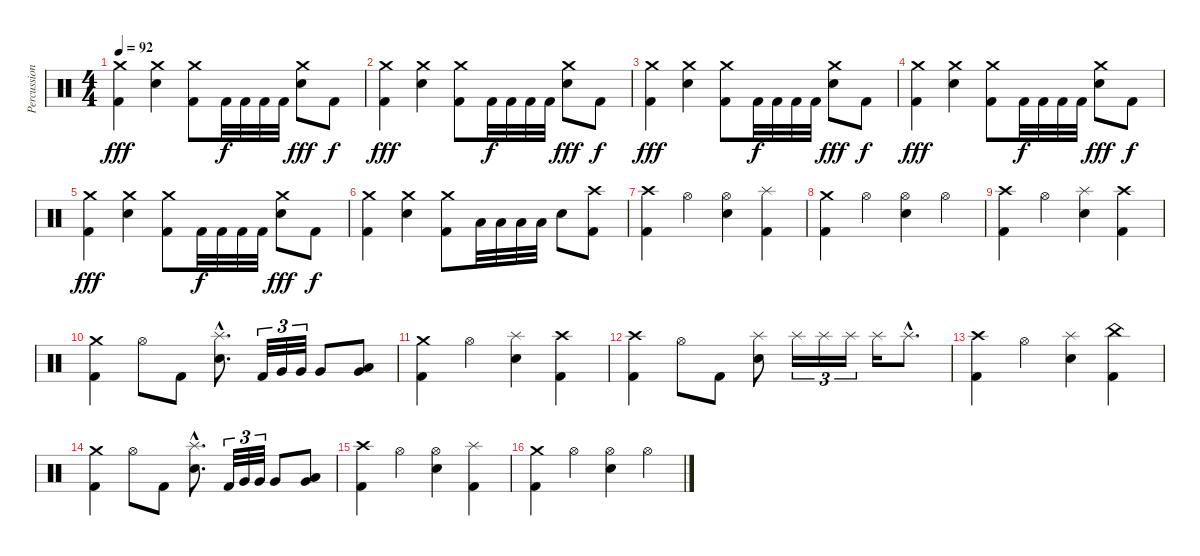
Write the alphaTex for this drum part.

\track ("Percussion" "Percussion") {instrument percussion}
\staff {score}
\articulation defaults
\ts (4 4)
\tempo 92
\clef neutral
\ks c
("Crash medium (hit)" "Kick (hit) 2").4{dy fff} ("Crash medium (hit)" "Electric Snare (hit)").4 ("Crash medium (hit)" "Kick (hit) 2").8 "Kick (hit) 2".32{dy f} "Kick (hit) 2".32 "Kick (hit) 2".32 "Kick (hit) 2".32 ("Crash medium (hit)" "Electric Snare (hit)").8{dy fff} "Kick (hit) 2".8{dy f} |
("Crash medium (hit)" "Kick (hit) 2").4{dy fff} ("Crash medium (hit)" "Electric Snare (hit)").4 ("Crash medium (hit)" "Kick (hit) 2").8 "Kick (hit) 2".32{dy f} "Kick (hit) 2".32 "Kick (hit) 2".32 "Kick (hit) 2".32 ("Crash medium (hit)" "Electric Snare (hit)").8{dy fff} "Kick (hit) 2".8{dy f} |
("Crash medium (hit)" "Kick (hit) 2").4{dy fff} ("Crash medium (hit)" "Electric Snare (hit)").4 ("Crash medium (hit)" "Kick (hit) 2").8 "Kick (hit) 2".32{dy f} "Kick (hit) 2".32 "Kick (hit) 2".32 "Kick (hit) 2".32 ("Crash medium (hit)" "Electric Snare (hit)").8{dy fff} "Kick (hit) 2".8{dy f} |
("Crash medium (hit)" "Kick (hit) 2").4{dy fff} ("Crash medium (hit)" "Electric Snare (hit)").4 ("Crash medium (hit)" "Kick (hit) 2").8 "Kick (hit) 2".32{dy f} "Kick (hit) 2".32 "Kick (hit) 2".32 "Kick (hit) 2".32 ("Crash medium (hit)" "Electric Snare (hit)").8{dy fff} "Kick (hit) 2".8{dy f} |
("Crash medium (hit)" "Kick (hit) 2").4{dy fff} ("Crash medium (hit)" "Electric Snare (hit)").4 ("Crash medium (hit)" "Kick (hit) 2").8 "Kick (hit) 2".32{dy f} "Kick (hit) 2".32 "Kick (hit) 2".32 "Kick (hit) 2".32 ("Crash medium (hit)" "Electric Snare (hit)").8{dy fff} "Kick (hit) 2".8{dy f} |
("Crash medium (hit)" "Kick (hit) 2").4 ("Crash medium (hit)" "Electric Snare (hit)").4 ("Crash medium (hit)" "Kick (hit) 2").8 "Low Floor Tom (hit)".32 "Low Floor Tom (hit)".32 "Low Floor Tom (hit)".32 "Low Floor Tom (hit)".32 "Electric Snare (hit)".8 ("Crash high (hit)" "Kick (hit) 2").8 |
("Crash high (hit)" "Kick (hit) 2").4 "Hi-Hat (open)".4 ("Hi-Hat (open)" "Electric Snare (hit)").4 ("Splash (hit)" "Kick (hit) 2").4 |
("Crash medium (hit)" "Kick (hit) 2").4 "Hi-Hat (open)".4 ("Hi-Hat (open)" "Electric Snare (hit)").4 "Hi-Hat (open)".4 |
("Crash high (hit)" "Kick (hit) 2").4 "Hi-Hat (open)".4 ("Splash (hit)" "Electric Snare (hit)").4 ("Crash high (hit)" "Kick (hit) 2").4 |
("Crash medium (hit)" "Kick (hit) 2").4 "Hi-Hat (open)".8 "Kick (hit) 2".8 ("Splash (hit)"{hac} "Electric Snare (hit)"{hac}).8{d} "Kick (hit) 2".32{tu (3 2)} "Very Low Tom (hit)".32{tu (3 2)} "Very Low Tom (hit)".32{tu (3 2)} "Very Low Tom (hit)".8 ("Low Tom (hit)" "Very Low Tom (hit)").8 |
("Crash medium (hit)" "Kick (hit) 2").4 "Hi-Hat (open)".4 ("Splash (hit)" "Electric Snare (hit)").4 ("Kick (hit) 2" "Crash high (hit)").4 |
("Crash high (hit)" "Kick (hit) 2").4 "Hi-Hat (open)".8 "Kick (hit) 2".8 ("Splash (hit)" "Electric Snare (hit)").8 "Splash (hit)".16{tu (3 2)} "Splash (hit)".16{tu (3 2)} "Splash (hit)".16{tu (3 2)} "Splash (hit)".16 "Splash (hit)"{hac}.8{d} |
("Crash high (hit)" "Kick (hit) 2").4 "Hi-Hat (open)".4 ("Splash (hit)" "Electric Snare (hit)").4 ("China (hit)" "Kick (hit) 2").4 |
("Crash medium (hit)" "Kick (hit) 2").4 "Hi-Hat (open)".8 "Kick (hit) 2".8 ("Splash (hit)"{hac} "Electric Snare (hit)"{hac}).8{d} "Kick (hit) 2".32{tu (3 2)} "Very Low Tom (hit)".32{tu (3 2)} "Very Low Tom (hit)".32{tu (3 2)} "Very Low Tom (hit)".8 ("Low Tom (hit)" "Very Low Tom (hit)").8 |
("Crash high (hit)" "Kick (hit) 2").4 "Hi-Hat (open)".4 ("Hi-Hat (open)" "Electric Snare (hit)").4 ("Splash (hit)" "Kick (hit) 2").4 |
("Crash medium (hit)" "Kick (hit) 2").4 "Hi-Hat (open)".4 ("Hi-Hat (open)" "Electric Snare (hit)").4 "Hi-Hat (open)".4
